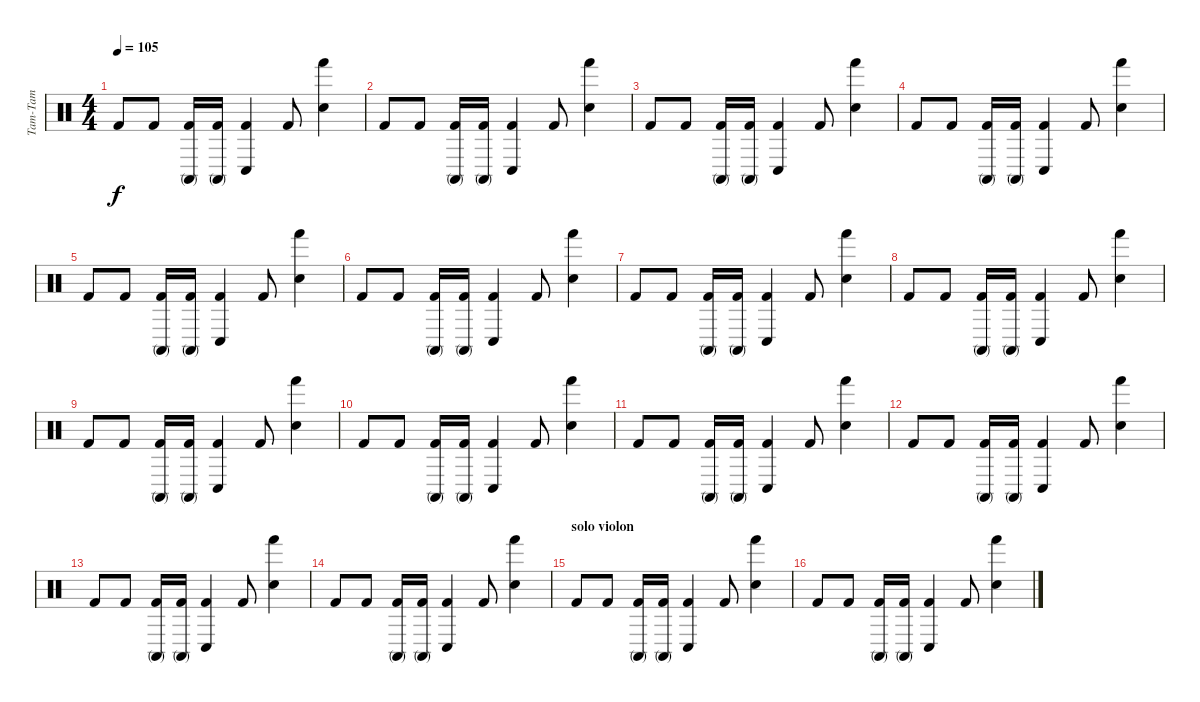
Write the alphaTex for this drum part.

\track ("Tam-Tam" "Tam-Tam") {instrument percussion}
\staff {score}
\articulation defaults
\ts (4 4)
\tempo 105
\clef neutral
\ks c "Kick (hit) 2".8{dy f} "Kick (hit) 2".8
("Conga high (mute)" "Kick (hit) 2").16 ("Conga high (mute)" "Kick (hit) 2").16 ("Conga low (hit)" "Kick (hit) 2").4 "Kick (hit) 2".8 ("Hand (hit)" "Electric Snare (hit)").4 |
"Kick (hit) 2".8 "Kick (hit) 2".8 ("Conga high (mute)" "Kick (hit) 2").16 ("Conga high (mute)" "Kick (hit) 2").16 ("Conga low (hit)" "Kick (hit) 2").4 "Kick (hit) 2".8 ("Hand (hit)" "Electric Snare (hit)").4 |
"Kick (hit) 2".8 "Kick (hit) 2".8 ("Conga high (mute)" "Kick (hit) 2").16 ("Conga high (mute)" "Kick (hit) 2").16 ("Conga low (hit)" "Kick (hit) 2").4 "Kick (hit) 2".8 ("Hand (hit)" "Electric Snare (hit)").4 |
"Kick (hit) 2".8 "Kick (hit) 2".8 ("Conga high (mute)" "Kick (hit) 2").16 ("Conga high (mute)" "Kick (hit) 2").16 ("Conga low (hit)" "Kick (hit) 2").4 "Kick (hit) 2".8 ("Hand (hit)" "Electric Snare (hit)").4 |
"Kick (hit) 2".8 "Kick (hit) 2".8 ("Conga high (mute)" "Kick (hit) 2").16 ("Conga high (mute)" "Kick (hit) 2").16 ("Conga low (hit)" "Kick (hit) 2").4 "Kick (hit) 2".8 ("Hand (hit)" "Electric Snare (hit)").4 |
"Kick (hit) 2".8 "Kick (hit) 2".8 ("Conga high (mute)" "Kick (hit) 2").16 ("Conga high (mute)" "Kick (hit) 2").16 ("Conga low (hit)" "Kick (hit) 2").4 "Kick (hit) 2".8 ("Hand (hit)" "Electric Snare (hit)").4 |
"Kick (hit) 2".8 "Kick (hit) 2".8 ("Conga high (mute)" "Kick (hit) 2").16 ("Conga high (mute)" "Kick (hit) 2").16 ("Conga low (hit)" "Kick (hit) 2").4 "Kick (hit) 2".8 ("Hand (hit)" "Electric Snare (hit)").4 |
"Kick (hit) 2".8 "Kick (hit) 2".8 ("Conga high (mute)" "Kick (hit) 2").16 ("Conga high (mute)" "Kick (hit) 2").16 ("Conga low (hit)" "Kick (hit) 2").4 "Kick (hit) 2".8 ("Hand (hit)" "Electric Snare (hit)").4 |
"Kick (hit) 2".8 "Kick (hit) 2".8 ("Conga high (mute)" "Kick (hit) 2").16 ("Conga high (mute)" "Kick (hit) 2").16 ("Conga low (hit)" "Kick (hit) 2").4 "Kick (hit) 2".8 ("Hand (hit)" "Electric Snare (hit)").4 |
"Kick (hit) 2".8 "Kick (hit) 2".8 ("Conga high (mute)" "Kick (hit) 2").16 ("Conga high (mute)" "Kick (hit) 2").16 ("Conga low (hit)" "Kick (hit) 2").4 "Kick (hit) 2".8 ("Hand (hit)" "Electric Snare (hit)").4 |
"Kick (hit) 2".8 "Kick (hit) 2".8 ("Conga high (mute)" "Kick (hit) 2").16 ("Conga high (mute)" "Kick (hit) 2").16 ("Conga low (hit)" "Kick (hit) 2").4 "Kick (hit) 2".8 ("Hand (hit)" "Electric Snare (hit)").4 |
"Kick (hit) 2".8 "Kick (hit) 2".8 ("Conga high (mute)" "Kick (hit) 2").16 ("Conga high (mute)" "Kick (hit) 2").16 ("Conga low (hit)" "Kick (hit) 2").4 "Kick (hit) 2".8 ("Hand (hit)" "Electric Snare (hit)").4 |
"Kick (hit) 2".8 "Kick (hit) 2".8 ("Conga high (mute)" "Kick (hit) 2").16 ("Conga high (mute)" "Kick (hit) 2").16 ("Conga low (hit)" "Kick (hit) 2").4 "Kick (hit) 2".8 ("Hand (hit)" "Electric Snare (hit)").4 |
"Kick (hit) 2".8 "Kick (hit) 2".8 ("Conga high (mute)" "Kick (hit) 2").16 ("Conga high (mute)" "Kick (hit) 2").16 ("Conga low (hit)" "Kick (hit) 2").4 "Kick (hit) 2".8 ("Hand (hit)" "Electric Snare (hit)").4 |
\section ("" "solo violon")
"Kick (hit) 2".8 "Kick (hit) 2".8 ("Conga high (mute)" "Kick (hit) 2").16 ("Conga high (mute)" "Kick (hit) 2").16 ("Conga low (hit)" "Kick (hit) 2").4 "Kick (hit) 2".8 ("Hand (hit)" "Electric Snare (hit)").4 |
"Kick (hit) 2".8 "Kick (hit) 2".8 ("Conga high (mute)" "Kick (hit) 2").16 ("Conga high (mute)" "Kick (hit) 2").16 ("Conga low (hit)" "Kick (hit) 2").4 "Kick (hit) 2".8 ("Hand (hit)" "Electric Snare (hit)").4
